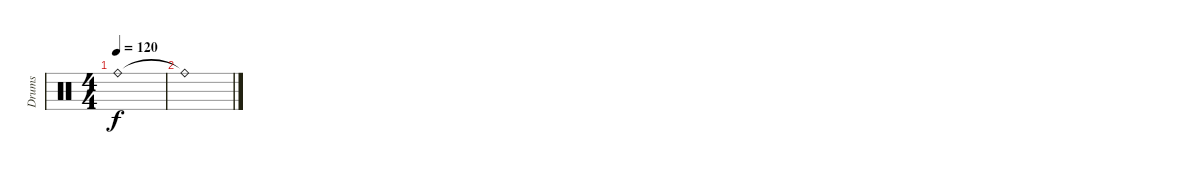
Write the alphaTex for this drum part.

\track ("Drums" "Drums") {instrument percussion}
\staff {score}
\articulation defaults
\ts (4 4)
\tempo 120
\clef neutral
\ks c "Ride (bell)"{t}.1{dy f}
|
"Ride (bell)"{t}.1
